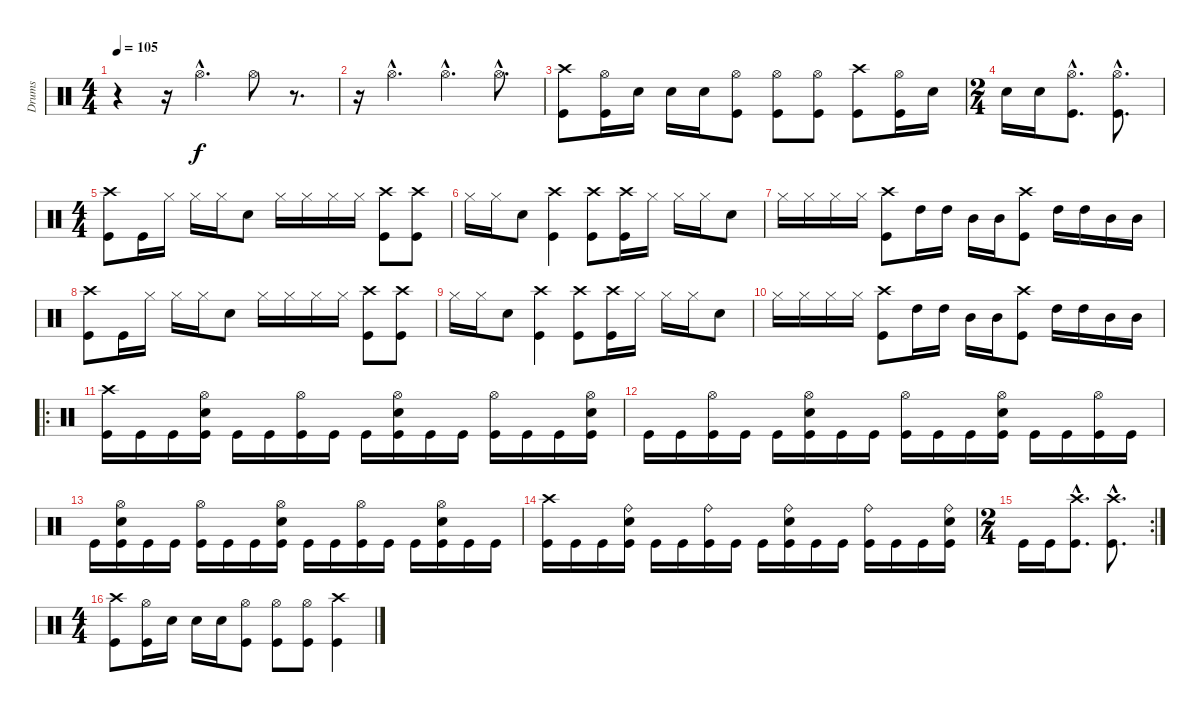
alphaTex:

\track ("Drums" "Drums") {instrument percussion}
\staff {score}
\articulation defaults
\ts (4 4)
\tempo 105
\clef neutral
\ks c
r.4{dy f} r.16 "Hi-Hat (open)"{hac}.4{d} "Hi-Hat (open)".8 r.8{d} |
r.16 "Hi-Hat (open)"{hac}.4{d} "Hi-Hat (open)"{hac}.4{d} "Hi-Hat (open)"{hac}.8{d} |
("Crash high (hit)" "Kick (hit)").8 ("Hi-Hat (open)" "Kick (hit)").16 "Snare (hit) 2".16 "Snare (hit) 2".16 "Snare (hit) 2".16 ("Hi-Hat (open)" "Kick (hit)").8 ("Hi-Hat (open)" "Kick (hit)").8 ("Hi-Hat (open)" "Kick (hit)").8 ("Crash high (hit)" "Kick (hit)").8 ("Hi-Hat (open)" "Kick (hit)").16 "Snare (hit) 2".16 |
\ts (2 4)
"Snare (hit) 2".16 "Snare (hit) 2".16 ("Hi-Hat (open)"{hac} "Kick (hit)"{hac}).8{d} ("Hi-Hat (open)"{hac} "Kick (hit)"{hac}).8{d} |
\ts (4 4)
("Crash high (hit)" "Kick (hit)").8 "Kick (hit)".16 "Hi-Hat (closed)".16 "Hi-Hat (closed)".16 "Hi-Hat (closed)".16 "Snare (hit) 2".8 "Hi-Hat (closed)".16 "Hi-Hat (closed)".16 "Hi-Hat (closed)".16 "Hi-Hat (closed)".16 ("Crash high (hit)" "Kick (hit)").8 ("Crash high (hit)" "Kick (hit)").8 |
"Hi-Hat (closed)".16 "Hi-Hat (closed)".16 "Snare (hit) 2".8 ("Crash high (hit)" "Kick (hit)").4 ("Crash high (hit)" "Kick (hit)").8 ("Crash high (hit)" "Kick (hit)").16 "Hi-Hat (closed)".16 "Hi-Hat (closed)".16 "Hi-Hat (closed)".16 "Snare (hit) 2".8 |
"Hi-Hat (closed)".16 "Hi-Hat (closed)".16 "Hi-Hat (closed)".16 "Hi-Hat (closed)".16 ("Crash high (hit)" "Kick (hit)").8 "High Tom (hit)".16 "High Tom (hit)".16 "Mid Tom (hit)".16 "Mid Tom (hit)".16 ("Crash high (hit)" "Kick (hit)").8 "High Tom (hit)".16 "High Tom (hit)".16 "Mid Tom (hit)".16 "Mid Tom (hit)".16 |
("Crash high (hit)" "Kick (hit)").8 "Kick (hit)".16 "Hi-Hat (closed)".16 "Hi-Hat (closed)".16 "Hi-Hat (closed)".16 "Snare (hit) 2".8 "Hi-Hat (closed)".16 "Hi-Hat (closed)".16 "Hi-Hat (closed)".16 "Hi-Hat (closed)".16 ("Crash high (hit)" "Kick (hit)").8 ("Crash high (hit)" "Kick (hit)").8 |
"Hi-Hat (closed)".16 "Hi-Hat (closed)".16 "Snare (hit) 2".8 ("Crash high (hit)" "Kick (hit)").4 ("Crash high (hit)" "Kick (hit)").8 ("Crash high (hit)" "Kick (hit)").16 "Hi-Hat (closed)".16 "Hi-Hat (closed)".16 "Hi-Hat (closed)".16 "Snare (hit) 2".8 |
"Hi-Hat (closed)".16 "Hi-Hat (closed)".16 "Hi-Hat (closed)".16 "Hi-Hat (closed)".16 ("Crash high (hit)" "Kick (hit)").8 "High Tom (hit)".16 "High Tom (hit)".16 "Mid Tom (hit)".16 "Mid Tom (hit)".16 ("Crash high (hit)" "Kick (hit)").8 "High Tom (hit)".16 "High Tom (hit)".16 "Mid Tom (hit)".16 "Mid Tom (hit)".16 |
\ro
("Crash high (hit)" "Kick (hit)").16 "Kick (hit)".16 "Kick (hit)".16 ("Hi-Hat (open)" "Snare (hit) 2" "Kick (hit)").16 "Kick (hit)".16 "Kick (hit)".16 ("Hi-Hat (open)" "Kick (hit)").16 "Kick (hit)".16 "Kick (hit)".16 ("Hi-Hat (open)" "Snare (hit) 2" "Kick (hit)").16 "Kick (hit)".16 "Kick (hit)".16 ("Hi-Hat (open)" "Kick (hit)").16 "Kick (hit)".16 "Kick (hit)".16 ("Hi-Hat (open)" "Snare (hit) 2" "Kick (hit)").16 |
"Kick (hit)".16 "Kick (hit)".16 ("Hi-Hat (open)" "Kick (hit)").16 "Kick (hit)".16 "Kick (hit)".16 ("Hi-Hat (open)" "Snare (hit) 2" "Kick (hit)").16 "Kick (hit)".16 "Kick (hit)".16 ("Hi-Hat (open)" "Kick (hit)").16 "Kick (hit)".16 "Kick (hit)".16 ("Hi-Hat (open)" "Snare (hit) 2" "Kick (hit)").16 "Kick (hit)".16 "Kick (hit)".16 ("Hi-Hat (open)" "Kick (hit)").16 "Kick (hit)".16 |
"Kick (hit)".16 ("Hi-Hat (open)" "Snare (hit) 2" "Kick (hit)").16 "Kick (hit)".16 "Kick (hit)".16 ("Hi-Hat (open)" "Kick (hit)").16 "Kick (hit)".16 "Kick (hit)".16 ("Hi-Hat (open)" "Snare (hit) 2" "Kick (hit)").16 "Kick (hit)".16 "Kick (hit)".16 ("Hi-Hat (open)" "Kick (hit)").16 "Kick (hit)".16 "Kick (hit)".16 ("Hi-Hat (open)" "Snare (hit) 2" "Kick (hit)").16 "Kick (hit)".16 "Kick (hit)".16 |
("Crash high (hit)" "Kick (hit)").16 "Kick (hit)".16 "Kick (hit)".16 ("Ride (bell)" "Snare (hit) 2" "Kick (hit)").16 "Kick (hit)".16 "Kick (hit)".16 ("Ride (bell)" "Kick (hit)").16 "Kick (hit)".16 "Kick (hit)".16 ("Ride (bell)" "Snare (hit) 2" "Kick (hit)").16 "Kick (hit)".16 "Kick (hit)".16 ("Ride (bell)" "Kick (hit)").16 "Kick (hit)".16 "Kick (hit)".16 ("Ride (bell)" "Snare (hit) 2" "Kick (hit)").16 |
\rc 2
\ts (2 4)
"Kick (hit)".16 "Kick (hit)".16 ("Crash high (hit)"{hac} "Kick (hit)"{hac}).8{d} ("Crash high (hit)"{hac} "Kick (hit)"{hac}).8{d} |
\ts (4 4)
("Crash high (hit)" "Kick (hit)").8 ("Hi-Hat (open)" "Kick (hit)").16 "Snare (hit) 2".16 "Snare (hit) 2".16 "Snare (hit) 2".16 ("Hi-Hat (open)" "Kick (hit)").8 ("Hi-Hat (open)" "Kick (hit)").8 ("Hi-Hat (open)" "Kick (hit)").8 ("Crash high (hit)" "Kick (hit)").4
